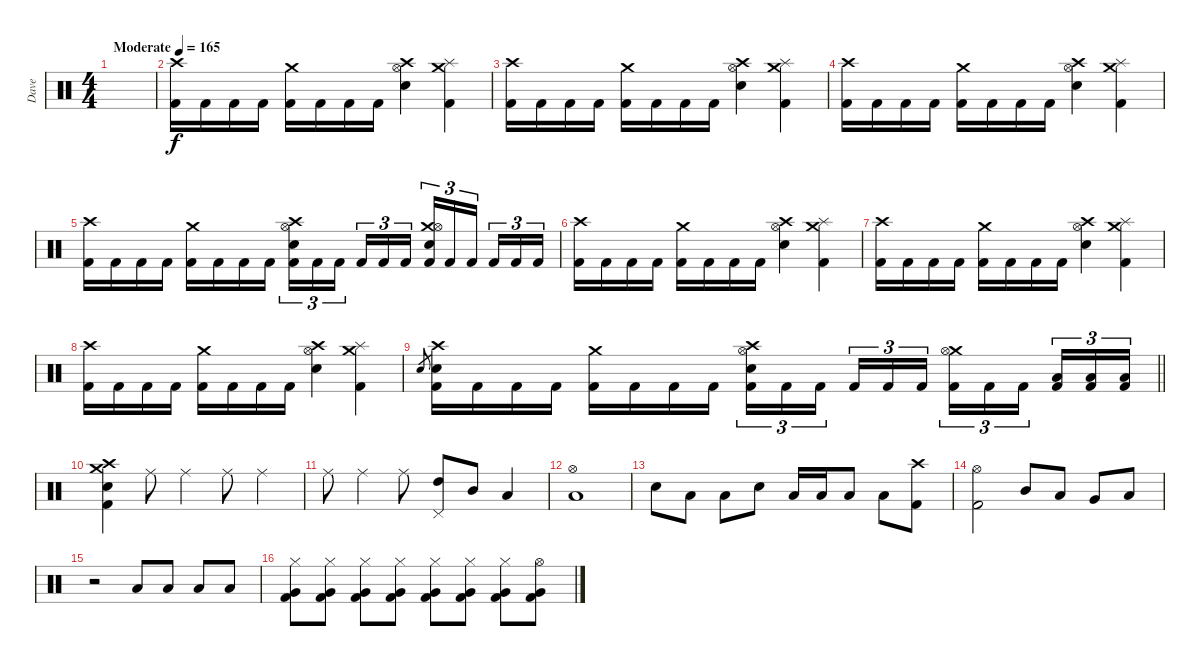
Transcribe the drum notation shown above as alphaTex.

\track ("Dave" "Dave") {mute instrument percussion}
\staff
\articulation defaults
\ts (4 4)
\tempo (165 "Moderate")
\clef neutral
\ks c
|
("Crash high (hit)" "Kick (hit) 2").16 "Kick (hit) 2".16 "Kick (hit) 2".16 "Kick (hit) 2".16 ("Crash medium (hit)" "Kick (hit) 2").16 "Kick (hit) 2".16 "Kick (hit) 2".16 "Kick (hit) 2".16 ("Crash high (hit)" "Hi-Hat (open)" "Snare (hit) 2").4 ("Crash medium (hit)" "Splash (hit)" "Kick (hit) 2").4 |
("Crash high (hit)" "Kick (hit) 2").16 "Kick (hit) 2".16 "Kick (hit) 2".16 "Kick (hit) 2".16 ("Crash medium (hit)" "Kick (hit) 2").16 "Kick (hit) 2".16 "Kick (hit) 2".16 "Kick (hit) 2".16 ("Crash high (hit)" "Hi-Hat (open)" "Snare (hit) 2").4 ("Crash medium (hit)" "Splash (hit)" "Kick (hit) 2").4 |
("Crash high (hit)" "Kick (hit) 2").16 "Kick (hit) 2".16 "Kick (hit) 2".16 "Kick (hit) 2".16 ("Crash medium (hit)" "Kick (hit) 2").16 "Kick (hit) 2".16 "Kick (hit) 2".16 "Kick (hit) 2".16 ("Crash high (hit)" "Hi-Hat (open)" "Snare (hit) 2").4 ("Crash medium (hit)" "Splash (hit)" "Kick (hit) 2").4 |
("Crash high (hit)" "Kick (hit) 2").16 "Kick (hit) 2".16 "Kick (hit) 2".16 "Kick (hit) 2".16 ("Crash medium (hit)" "Kick (hit) 2").16 "Kick (hit) 2".16 "Kick (hit) 2".16 "Kick (hit) 2".16 ("Crash high (hit)" "Hi-Hat (open)" "Snare (hit) 2" "Kick (hit) 2").16{tu (3 2)} "Kick (hit) 2".16{tu (3 2)} "Kick (hit) 2".16{tu (3 2) beam splitsecondary} "Kick (hit) 2".16{tu (3 2)} "Kick (hit) 2".16{tu (3 2)} "Kick (hit) 2".16{tu (3 2)} ("Crash medium (hit)" "Hi-Hat (open)" "Snare (hit) 2" "Kick (hit) 2").16{tu (3 2)} "Kick (hit) 2".16{tu (3 2)} "Kick (hit) 2".16{tu (3 2) beam splitsecondary} "Kick (hit) 2".16{tu (3 2)} "Kick (hit) 2".16{tu (3 2)} "Kick (hit) 2".16{tu (3 2)} |
("Crash high (hit)" "Kick (hit) 2").16 "Kick (hit) 2".16 "Kick (hit) 2".16 "Kick (hit) 2".16 ("Crash medium (hit)" "Kick (hit) 2").16 "Kick (hit) 2".16 "Kick (hit) 2".16 "Kick (hit) 2".16 ("Crash high (hit)" "Hi-Hat (open)" "Snare (hit) 2").4 ("Crash medium (hit)" "Splash (hit)" "Kick (hit) 2").4 |
("Crash high (hit)" "Kick (hit) 2").16 "Kick (hit) 2".16 "Kick (hit) 2".16 "Kick (hit) 2".16 ("Crash medium (hit)" "Kick (hit) 2").16 "Kick (hit) 2".16 "Kick (hit) 2".16 "Kick (hit) 2".16 ("Crash high (hit)" "Hi-Hat (open)" "Snare (hit) 2").4 ("Crash medium (hit)" "Splash (hit)" "Kick (hit) 2").4 |
("Crash high (hit)" "Kick (hit) 2").16 "Kick (hit) 2".16 "Kick (hit) 2".16 "Kick (hit) 2".16 ("Crash medium (hit)" "Kick (hit) 2").16 "Kick (hit) 2".16 "Kick (hit) 2".16 "Kick (hit) 2".16 ("Crash high (hit)" "Hi-Hat (open)" "Snare (hit) 2").4 ("Crash medium (hit)" "Splash (hit)" "Kick (hit) 2").4 |
\barLineRight lightlight "Snare (hit) 2".8{gr}
("Crash high (hit)" "Snare (hit) 2" "Kick (hit) 2").16 "Kick (hit) 2".16 "Kick (hit) 2".16 "Kick (hit) 2".16 ("Crash medium (hit)" "Kick (hit) 2").16 "Kick (hit) 2".16 "Kick (hit) 2".16 "Kick (hit) 2".16 ("Crash high (hit)" "Hi-Hat (open)" "Snare (hit) 2" "Kick (hit) 2").16{tu (3 2)} "Kick (hit) 2".16{tu (3 2)} "Kick (hit) 2".16{tu (3 2) beam splitsecondary} "Kick (hit) 2".16{tu (3 2)} "Kick (hit) 2".16{tu (3 2)} "Kick (hit) 2".16{tu (3 2)} ("Crash medium (hit)" "Hi-Hat (open)" "Kick (hit) 2").16{tu (3 2)} "Kick (hit) 2".16{tu (3 2)} "Kick (hit) 2".16{tu (3 2) beam splitsecondary} ("Low Tom (hit)" "Kick (hit) 2").16{tu (3 2)} ("Low Tom (hit)" "Kick (hit) 2").16{tu (3 2)} ("Low Tom (hit)" "Kick (hit) 2").16{tu (3 2)} |
("Crash high (hit)" "Crash medium (hit)" "Snare (hit) 2" "Kick (hit) 2").4 "Ride (middle)".8 "Ride (middle)".4 "Ride (middle)".8 "Ride (middle)".4 |
"Ride (middle)".8 "Ride (middle)".4 "Ride (middle)".8 ("Pedal Hi-Hat (hit)" "High Tom (hit)").8 "Mid Tom (hit)".8 "Low Tom (hit)".4 |
("Hi-Hat (open)" "Low Tom (hit)").1 |
"Snare (hit) 2".8 "Low Tom (hit)".8 "Low Tom (hit)".8 "Snare (hit) 2".8 "Low Tom (hit)".16 "Low Tom (hit)".16 "Low Tom (hit)".8 "Low Tom (hit)".8 ("Crash high (hit)" "Kick (hit) 2").8 |
("Hi-Hat (open)" "Kick (hit) 2").2 "Mid Tom (hit)".8 "Low Tom (hit)".8 "Very Low Tom (hit)".8 "Low Floor Tom (hit)".8 |
r.2 "Low Floor Tom (hit)".8 "Low Floor Tom (hit)".8 "Low Floor Tom (hit)".8 "Low Floor Tom (hit)".8 |
("Hi-Hat (closed)" "Very Low Tom (hit)" "Kick (hit) 2").8 ("Hi-Hat (closed)" "Very Low Tom (hit)" "Kick (hit) 2").8 ("Hi-Hat (closed)" "Very Low Tom (hit)" "Kick (hit) 2").8 ("Hi-Hat (closed)" "Very Low Tom (hit)" "Kick (hit) 2").8 ("Hi-Hat (closed)" "Very Low Tom (hit)" "Kick (hit) 2").8 ("Hi-Hat (closed)" "Very Low Tom (hit)" "Kick (hit) 2").8 ("Hi-Hat (closed)" "Very Low Tom (hit)" "Kick (hit) 2").8 ("Hi-Hat (open)" "Very Low Tom (hit)" "Kick (hit) 2").8
